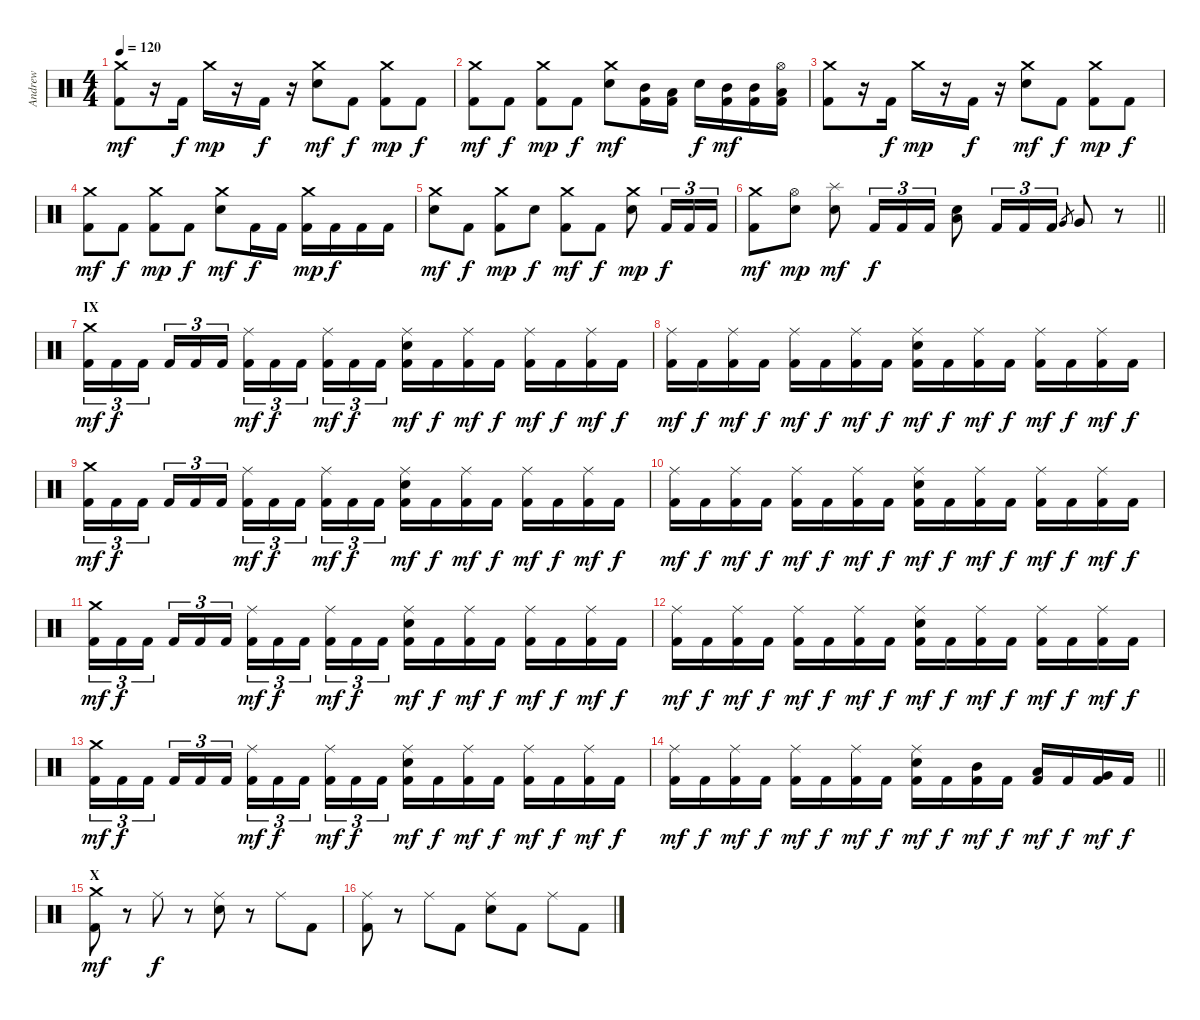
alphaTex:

\track ("Andrew" "Andrew") {instrument percussion}
\staff {score}
\articulation defaults
\ts (4 4)
\tempo 120
\clef neutral
\ks c
("Crash medium (hit)" "Kick (hit) 2").8{dy mf} r.16 "Kick (hit) 2".16{dy f} "Crash medium (hit)".16{dy mp} r.16 "Kick (hit) 2".16{dy f} r.16 ("Crash medium (hit)" "Electric Snare (hit)").8{dy mf} "Kick (hit) 2".8{dy f} ("Crash medium (hit)" "Kick (hit) 2").8{dy mp} "Kick (hit) 2".8{dy f} |
("Crash medium (hit)" "Kick (hit) 2").8{dy mf} "Kick (hit) 2".8{dy f} ("Crash medium (hit)" "Kick (hit) 2").8{dy mp} "Kick (hit) 2".8{dy f} ("Crash medium (hit)" "Electric Snare (hit)").8{dy mf} ("Mid Tom (hit)" "Kick (hit) 2").16 ("Low Tom (hit)" "Kick (hit) 2").16 "Electric Snare (hit)".16{dy f} ("Mid Tom (hit)" "Kick (hit) 2").16{dy mf} ("Mid Tom (hit)" "Kick (hit) 2").16 ("Hi-Hat (open)" "Low Tom (hit)" "Kick (hit) 2").16 |
("Crash medium (hit)" "Kick (hit) 2").8 r.16 "Kick (hit) 2".16{dy f} "Crash medium (hit)".16{dy mp} r.16 "Kick (hit) 2".16{dy f} r.16 ("Crash medium (hit)" "Electric Snare (hit)").8{dy mf} "Kick (hit) 2".8{dy f} ("Crash medium (hit)" "Kick (hit) 2").8{dy mp} "Kick (hit) 2".8{dy f} |
("Crash medium (hit)" "Kick (hit) 2").8{dy mf} "Kick (hit) 2".8{dy f} ("Crash medium (hit)" "Kick (hit) 2").8{dy mp} "Kick (hit) 2".8{dy f} ("Crash medium (hit)" "Electric Snare (hit)").8{dy mf} "Kick (hit) 2".16{dy f} "Kick (hit) 2".16 ("Crash medium (hit)" "Kick (hit) 2").16{dy mp} "Kick (hit) 2".16{dy f} "Kick (hit) 2".16 "Kick (hit) 2".16 |
("Crash medium (hit)" "Electric Snare (hit)").8{dy mf} "Kick (hit) 2".8{dy f} ("Crash medium (hit)" "Kick (hit) 2").8{dy mp} "Electric Snare (hit)".8{dy f} ("Crash medium (hit)" "Kick (hit) 2").8{dy mf} "Kick (hit) 2".8{dy f} ("Crash medium (hit)" "Electric Snare (hit)").8{dy mp} "Kick (hit) 2".16{tu (3 2) dy f} "Kick (hit) 2".16{tu (3 2)} "Kick (hit) 2".16{tu (3 2)} |
\barLineRight lightlight
("Crash medium (hit)" "Kick (hit) 2").8{dy mf} ("Hi-Hat (open)" "Electric Snare (hit)").8{dy mp} ("Splash (hit)" "Electric Snare (hit)").8{dy mf} "Kick (hit) 2".16{tu (3 2) dy f} "Kick (hit) 2".16{tu (3 2)} "Kick (hit) 2".16{tu (3 2)} ("Electric Snare (hit)" "Low Tom (hit)").8 "Kick (hit) 2".16{tu (3 2)} "Kick (hit) 2".16{tu (3 2)} "Kick (hit) 2".16{tu (3 2)} "Very Low Tom (hit)".8{gr} "Very Low Tom (hit)".8 r.8 |
\section ("" "IX")
("Crash medium (hit)" "Kick (hit) 2").16{tu (3 2) dy mf} "Kick (hit) 2".16{tu (3 2) dy f} "Kick (hit) 2".16{tu (3 2) beam splitsecondary} "Kick (hit) 2".16{tu (3 2)} "Kick (hit) 2".16{tu (3 2)} "Kick (hit) 2".16{tu (3 2)} ("Ride (middle)" "Kick (hit) 2").16{tu (3 2) dy mf} "Kick (hit) 2".16{tu (3 2) dy f} "Kick (hit) 2".16{tu (3 2) beam splitsecondary} ("Ride (middle)" "Kick (hit) 2").16{tu (3 2) dy mf} "Kick (hit) 2".16{tu (3 2) dy f} "Kick (hit) 2".16{tu (3 2)} ("Ride (middle)" "Electric Snare (hit)" "Kick (hit) 2").16{dy mf} "Kick (hit) 2".16{dy f} ("Ride (middle)" "Kick (hit) 2").16{dy mf} "Kick (hit) 2".16{dy f} ("Ride (middle)" "Kick (hit) 2").16{dy mf} "Kick (hit) 2".16{dy f} ("Ride (middle)" "Kick (hit) 2").16{dy mf} "Kick (hit) 2".16{dy f} |
("Ride (middle)" "Kick (hit) 2").16{dy mf} "Kick (hit) 2".16{dy f} ("Ride (middle)" "Kick (hit) 2").16{dy mf} "Kick (hit) 2".16{dy f} ("Ride (middle)" "Kick (hit) 2").16{dy mf} "Kick (hit) 2".16{dy f} ("Ride (middle)" "Kick (hit) 2").16{dy mf} "Kick (hit) 2".16{dy f} ("Ride (middle)" "Electric Snare (hit)" "Kick (hit) 2").16{dy mf} "Kick (hit) 2".16{dy f} ("Ride (middle)" "Kick (hit) 2").16{dy mf} "Kick (hit) 2".16{dy f} ("Ride (middle)" "Kick (hit) 2").16{dy mf} "Kick (hit) 2".16{dy f} ("Ride (middle)" "Kick (hit) 2").16{dy mf} "Kick (hit) 2".16{dy f} |
("Crash medium (hit)" "Kick (hit) 2").16{tu (3 2) dy mf} "Kick (hit) 2".16{tu (3 2) dy f} "Kick (hit) 2".16{tu (3 2) beam splitsecondary} "Kick (hit) 2".16{tu (3 2)} "Kick (hit) 2".16{tu (3 2)} "Kick (hit) 2".16{tu (3 2)} ("Ride (middle)" "Kick (hit) 2").16{tu (3 2) dy mf} "Kick (hit) 2".16{tu (3 2) dy f} "Kick (hit) 2".16{tu (3 2) beam splitsecondary} ("Ride (middle)" "Kick (hit) 2").16{tu (3 2) dy mf} "Kick (hit) 2".16{tu (3 2) dy f} "Kick (hit) 2".16{tu (3 2)} ("Ride (middle)" "Electric Snare (hit)" "Kick (hit) 2").16{dy mf} "Kick (hit) 2".16{dy f} ("Ride (middle)" "Kick (hit) 2").16{dy mf} "Kick (hit) 2".16{dy f} ("Ride (middle)" "Kick (hit) 2").16{dy mf} "Kick (hit) 2".16{dy f} ("Ride (middle)" "Kick (hit) 2").16{dy mf} "Kick (hit) 2".16{dy f} |
("Ride (middle)" "Kick (hit) 2").16{dy mf} "Kick (hit) 2".16{dy f} ("Ride (middle)" "Kick (hit) 2").16{dy mf} "Kick (hit) 2".16{dy f} ("Ride (middle)" "Kick (hit) 2").16{dy mf} "Kick (hit) 2".16{dy f} ("Ride (middle)" "Kick (hit) 2").16{dy mf} "Kick (hit) 2".16{dy f} ("Ride (middle)" "Electric Snare (hit)" "Kick (hit) 2").16{dy mf} "Kick (hit) 2".16{dy f} ("Ride (middle)" "Kick (hit) 2").16{dy mf} "Kick (hit) 2".16{dy f} ("Ride (middle)" "Kick (hit) 2").16{dy mf} "Kick (hit) 2".16{dy f} ("Ride (middle)" "Kick (hit) 2").16{dy mf} "Kick (hit) 2".16{dy f} |
("Crash medium (hit)" "Kick (hit) 2").16{tu (3 2) dy mf} "Kick (hit) 2".16{tu (3 2) dy f} "Kick (hit) 2".16{tu (3 2) beam splitsecondary} "Kick (hit) 2".16{tu (3 2)} "Kick (hit) 2".16{tu (3 2)} "Kick (hit) 2".16{tu (3 2)} ("Ride (middle)" "Kick (hit) 2").16{tu (3 2) dy mf} "Kick (hit) 2".16{tu (3 2) dy f} "Kick (hit) 2".16{tu (3 2) beam splitsecondary} ("Ride (middle)" "Kick (hit) 2").16{tu (3 2) dy mf} "Kick (hit) 2".16{tu (3 2) dy f} "Kick (hit) 2".16{tu (3 2)} ("Ride (middle)" "Electric Snare (hit)" "Kick (hit) 2").16{dy mf} "Kick (hit) 2".16{dy f} ("Ride (middle)" "Kick (hit) 2").16{dy mf} "Kick (hit) 2".16{dy f} ("Ride (middle)" "Kick (hit) 2").16{dy mf} "Kick (hit) 2".16{dy f} ("Ride (middle)" "Kick (hit) 2").16{dy mf} "Kick (hit) 2".16{dy f} |
("Ride (middle)" "Kick (hit) 2").16{dy mf} "Kick (hit) 2".16{dy f} ("Ride (middle)" "Kick (hit) 2").16{dy mf} "Kick (hit) 2".16{dy f} ("Ride (middle)" "Kick (hit) 2").16{dy mf} "Kick (hit) 2".16{dy f} ("Ride (middle)" "Kick (hit) 2").16{dy mf} "Kick (hit) 2".16{dy f} ("Ride (middle)" "Electric Snare (hit)" "Kick (hit) 2").16{dy mf} "Kick (hit) 2".16{dy f} ("Ride (middle)" "Kick (hit) 2").16{dy mf} "Kick (hit) 2".16{dy f} ("Ride (middle)" "Kick (hit) 2").16{dy mf} "Kick (hit) 2".16{dy f} ("Ride (middle)" "Kick (hit) 2").16{dy mf} "Kick (hit) 2".16{dy f} |
("Crash medium (hit)" "Kick (hit) 2").16{tu (3 2) dy mf} "Kick (hit) 2".16{tu (3 2) dy f} "Kick (hit) 2".16{tu (3 2) beam splitsecondary} "Kick (hit) 2".16{tu (3 2)} "Kick (hit) 2".16{tu (3 2)} "Kick (hit) 2".16{tu (3 2)} ("Ride (middle)" "Kick (hit) 2").16{tu (3 2) dy mf} "Kick (hit) 2".16{tu (3 2) dy f} "Kick (hit) 2".16{tu (3 2) beam splitsecondary} ("Ride (middle)" "Kick (hit) 2").16{tu (3 2) dy mf} "Kick (hit) 2".16{tu (3 2) dy f} "Kick (hit) 2".16{tu (3 2)} ("Ride (middle)" "Electric Snare (hit)" "Kick (hit) 2").16{dy mf} "Kick (hit) 2".16{dy f} ("Ride (middle)" "Kick (hit) 2").16{dy mf} "Kick (hit) 2".16{dy f} ("Ride (middle)" "Kick (hit) 2").16{dy mf} "Kick (hit) 2".16{dy f} ("Ride (middle)" "Kick (hit) 2").16{dy mf} "Kick (hit) 2".16{dy f} |
\barLineRight lightlight
("Ride (middle)" "Kick (hit) 2").16{dy mf} "Kick (hit) 2".16{dy f} ("Ride (middle)" "Kick (hit) 2").16{dy mf} "Kick (hit) 2".16{dy f} ("Ride (middle)" "Kick (hit) 2").16{dy mf} "Kick (hit) 2".16{dy f} ("Ride (middle)" "Kick (hit) 2").16{dy mf} "Kick (hit) 2".16{dy f} ("Ride (middle)" "Electric Snare (hit)" "Kick (hit) 2").16{dy mf} "Kick (hit) 2".16{dy f} ("Mid Tom (hit)" "Kick (hit) 2").16{dy mf} "Kick (hit) 2".16{dy f} ("Low Tom (hit)" "Kick (hit) 2").16{dy mf} "Kick (hit) 2".16{dy f} ("Very Low Tom (hit)" "Kick (hit) 2").16{dy mf} "Kick (hit) 2".16{dy f} |
\section ("" "X")
("Crash medium (hit)" "Kick (hit) 2").8{dy mf} r.8 "Ride (middle)".8{dy f} r.8 ("Ride (middle)" "Electric Snare (hit)").8 r.8 "Ride (middle)".8 "Kick (hit) 2".8 |
("Ride (middle)" "Kick (hit) 2").8 r.8 "Ride (middle)".8 "Kick (hit) 2".8 ("Ride (middle)" "Electric Snare (hit)").8 "Kick (hit) 2".8 "Ride (middle)".8 "Kick (hit) 2".8
